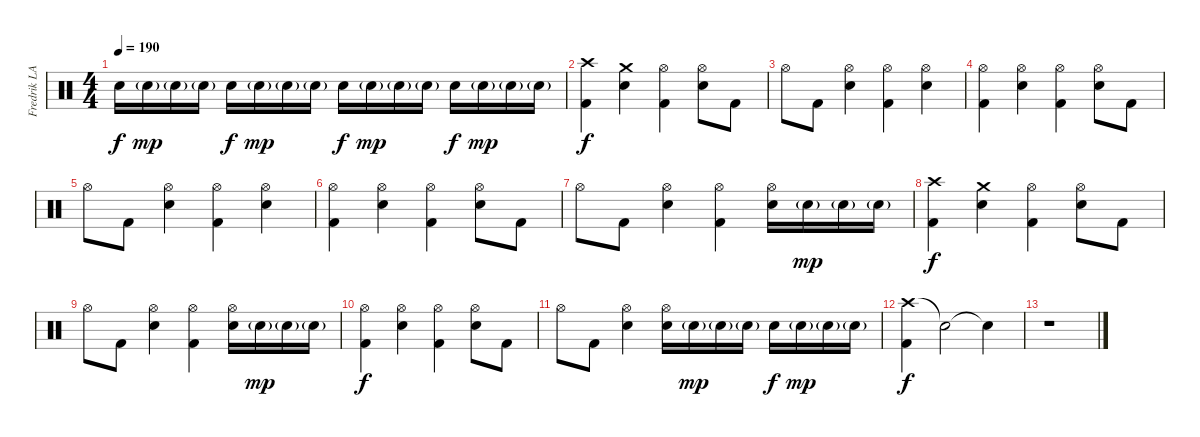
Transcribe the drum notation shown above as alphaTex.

\track ("Fredrik LARZON" "Fredrik LA") {instrument percussion}
\staff {score}
\articulation defaults
\ts (4 4)
\tempo 190
\clef neutral
\ks c "Electric Snare (hit)".16{dy f} "Electric Snare (hit)"{g}.16{dy mp} "Electric Snare (hit)"{g}.16 "Electric Snare (hit)"{g}.16 "Electric Snare (hit)".16{dy f} "Electric Snare (hit)"{g}.16{dy mp} "Electric Snare (hit)"{g}.16 "Electric Snare (hit)"{g}.16 "Electric Snare (hit)".16{dy f} "Electric Snare (hit)"{g}.16{dy mp} "Electric Snare (hit)"{g}.16 "Electric Snare (hit)"{g}.16 "Electric Snare (hit)".16{dy f} "Electric Snare (hit)"{g}.16{dy mp} "Electric Snare (hit)"{g}.16 "Electric Snare (hit)"{g}.16
|
("Crash high (hit)" "Kick (hit) 2").4{dy f} ("Crash medium (hit)" "Electric Snare (hit)").4 ("Hi-Hat (open)" "Kick (hit) 2").4 ("Hi-Hat (open)" "Electric Snare (hit)").8 "Kick (hit) 2".8 |
"Hi-Hat (open)".8 "Kick (hit) 2".8 ("Hi-Hat (open)" "Electric Snare (hit)").4 ("Hi-Hat (open)" "Kick (hit) 2").4 ("Hi-Hat (open)" "Electric Snare (hit)").4 |
("Hi-Hat (open)" "Kick (hit) 2").4 ("Hi-Hat (open)" "Electric Snare (hit)").4 ("Hi-Hat (open)" "Kick (hit) 2").4 ("Hi-Hat (open)" "Electric Snare (hit)").8 "Kick (hit) 2".8 |
"Hi-Hat (open)".8 "Kick (hit) 2".8 ("Hi-Hat (open)" "Electric Snare (hit)").4 ("Hi-Hat (open)" "Kick (hit) 2").4 ("Hi-Hat (open)" "Electric Snare (hit)").4 |
("Hi-Hat (open)" "Kick (hit) 2").4 ("Hi-Hat (open)" "Electric Snare (hit)").4 ("Hi-Hat (open)" "Kick (hit) 2").4 ("Hi-Hat (open)" "Electric Snare (hit)").8 "Kick (hit) 2".8 |
"Hi-Hat (open)".8 "Kick (hit) 2".8 ("Hi-Hat (open)" "Electric Snare (hit)").4 ("Hi-Hat (open)" "Kick (hit) 2").4 ("Hi-Hat (open)" "Electric Snare (hit)").16 "Electric Snare (hit)"{g}.16{dy mp} "Electric Snare (hit)"{g}.16 "Electric Snare (hit)"{g}.16 |
("Crash high (hit)" "Kick (hit) 2").4{dy f} ("Crash medium (hit)" "Electric Snare (hit)").4 ("Hi-Hat (open)" "Kick (hit) 2").4 ("Hi-Hat (open)" "Electric Snare (hit)").8 "Kick (hit) 2".8 |
"Hi-Hat (open)".8 "Kick (hit) 2".8 ("Hi-Hat (open)" "Electric Snare (hit)").4 ("Hi-Hat (open)" "Kick (hit) 2").4 ("Hi-Hat (open)" "Electric Snare (hit)").16 "Electric Snare (hit)"{g}.16{dy mp} "Electric Snare (hit)"{g}.16 "Electric Snare (hit)"{g}.16 |
("Hi-Hat (open)" "Kick (hit) 2").4{dy f} ("Hi-Hat (open)" "Electric Snare (hit)").4 ("Hi-Hat (open)" "Kick (hit) 2").4 ("Hi-Hat (open)" "Electric Snare (hit)").8 "Kick (hit) 2".8 |
"Hi-Hat (open)".8 "Kick (hit) 2".8 ("Hi-Hat (open)" "Electric Snare (hit)").4 ("Hi-Hat (open)" "Electric Snare (hit)").16 "Electric Snare (hit)"{g}.16{dy mp} "Electric Snare (hit)"{g}.16 "Electric Snare (hit)"{g}.16 "Electric Snare (hit)".16{dy f} "Electric Snare (hit)"{g}.16{dy mp} "Electric Snare (hit)"{g}.16 "Electric Snare (hit)"{g}.16 |
("Crash high (hit)" "Kick (hit) 2").4{dy f} "Snare (hit)"{t}.2 "Snare (hit)"{t}.4 |
r.1
